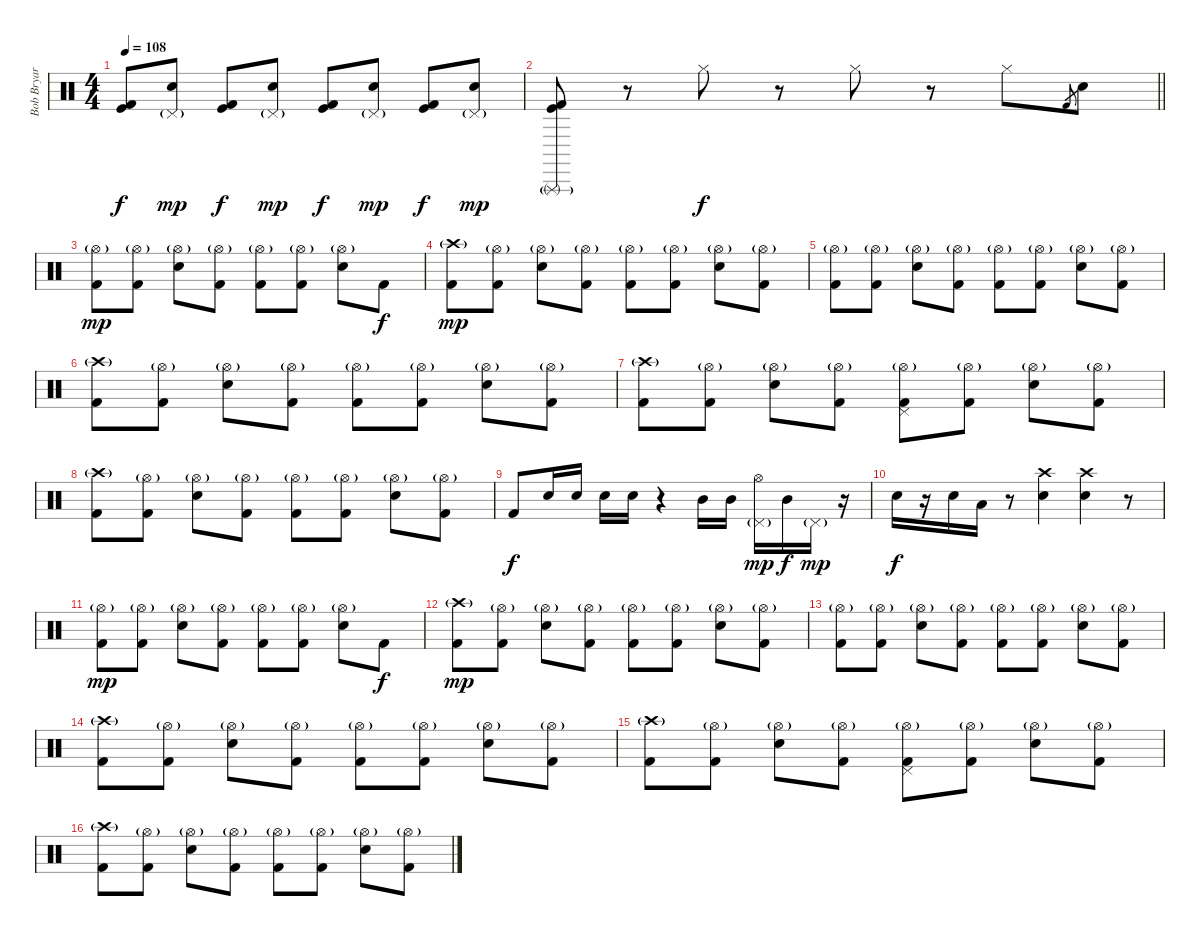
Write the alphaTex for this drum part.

\track ("Bob Bryar (Drums)" "Bob Bryar ") {instrument percussion}
\staff {score}
\articulation defaults
\ts (4 4)
\tempo 108
\clef neutral
\ks c
("Kick (hit)" "Kick (hit) 2").8{dy f volume 16 balance 8} ("Pedal Hi-Hat (hit)"{g} "Electric Snare (hit)").8{dy mp} ("Kick (hit)" "Kick (hit) 2").8{dy f} ("Pedal Hi-Hat (hit)"{g} "Electric Snare (hit)").8{dy mp} ("Kick (hit)" "Kick (hit) 2").8{dy f} ("Pedal Hi-Hat (hit)"{g} "Electric Snare (hit)").8{dy mp} ("Kick (hit)" "Kick (hit) 2").8{dy f} ("Pedal Hi-Hat (hit)"{g} "Electric Snare (hit)").8{dy mp} |
\barLineRight lightlight
("Triangle (rnute)"{g} "Kick (hit)" "Kick (hit) 2").8 r.8 "Hi-Hat (closed)".8{dy f} r.8 "Hi-Hat (closed)".8 r.8 "Hi-Hat (closed)".8 "Kick (hit) 2".8{gr} "Electric Snare (hit)".8 |
("Hi-Hat (open)"{g} "Kick (hit) 2").8{dy mp} ("Hi-Hat (open)"{g} "Kick (hit) 2").8 ("Hi-Hat (open)"{g} "Electric Snare (hit)").8 ("Hi-Hat (open)"{g} "Kick (hit) 2").8 ("Hi-Hat (open)"{g} "Kick (hit) 2").8 ("Hi-Hat (open)"{g} "Kick (hit) 2").8 ("Hi-Hat (open)"{g} "Electric Snare (hit)").8 "Kick (hit) 2".8{dy f} |
("Crash high (hit)"{g} "Kick (hit) 2").8{dy mp} ("Hi-Hat (open)"{g} "Kick (hit) 2").8 ("Hi-Hat (open)"{g} "Electric Snare (hit)").8 ("Hi-Hat (open)"{g} "Kick (hit) 2").8 ("Hi-Hat (open)"{g} "Kick (hit) 2").8 ("Hi-Hat (open)"{g} "Kick (hit) 2").8 ("Hi-Hat (open)"{g} "Electric Snare (hit)").8 ("Hi-Hat (open)"{g} "Kick (hit) 2").8 |
("Hi-Hat (open)"{g} "Kick (hit) 2").8 ("Hi-Hat (open)"{g} "Kick (hit) 2").8 ("Hi-Hat (open)"{g} "Electric Snare (hit)").8 ("Hi-Hat (open)"{g} "Kick (hit) 2").8 ("Hi-Hat (open)"{g} "Kick (hit) 2").8 ("Hi-Hat (open)"{g} "Kick (hit) 2").8 ("Hi-Hat (open)"{g} "Electric Snare (hit)").8 ("Hi-Hat (open)"{g} "Kick (hit) 2").8 |
("Crash high (hit)"{g} "Kick (hit) 2").8 ("Hi-Hat (open)"{g} "Kick (hit) 2").8 ("Hi-Hat (open)"{g} "Electric Snare (hit)").8 ("Hi-Hat (open)"{g} "Kick (hit) 2").8 ("Hi-Hat (open)"{g} "Kick (hit) 2").8 ("Hi-Hat (open)"{g} "Kick (hit) 2").8 ("Hi-Hat (open)"{g} "Electric Snare (hit)").8 ("Hi-Hat (open)"{g} "Kick (hit) 2").8 |
("Crash high (hit)"{g} "Kick (hit) 2").8 ("Hi-Hat (open)"{g} "Kick (hit) 2").8 ("Hi-Hat (open)"{g} "Electric Snare (hit)").8 ("Hi-Hat (open)"{g} "Kick (hit) 2").8 ("Hi-Hat (open)"{g} "Pedal Hi-Hat (hit)" "Kick (hit) 2").8 ("Hi-Hat (open)"{g} "Kick (hit) 2").8 ("Hi-Hat (open)"{g} "Electric Snare (hit)").8 ("Hi-Hat (open)"{g} "Kick (hit) 2").8 |
("Crash high (hit)"{g} "Kick (hit) 2").8 ("Hi-Hat (open)"{g} "Kick (hit) 2").8 ("Hi-Hat (open)"{g} "Electric Snare (hit)").8 ("Hi-Hat (open)"{g} "Kick (hit) 2").8 ("Hi-Hat (open)"{g} "Kick (hit) 2").8 ("Hi-Hat (open)"{g} "Kick (hit) 2").8 ("Hi-Hat (open)"{g} "Electric Snare (hit)").8 ("Hi-Hat (open)"{g} "Kick (hit) 2").8 |
"Kick (hit) 2".8{dy f} "Electric Snare (hit)".16 "Electric Snare (hit)".16 "Electric Snare (hit)".16 "Electric Snare (hit)".16 r.4 "Mid Tom (hit)".16 "Mid Tom (hit)".16 ("Pedal Hi-Hat (hit)"{g} "Hi-Hat (open)").16{dy mp} "Mid Tom (hit)".16{dy f} "Pedal Hi-Hat (hit)"{g}.16{dy mp} r.16 |
"Electric Snare (hit)".16{dy f} r.16 "Electric Snare (hit)".16 "Low Tom (hit)".16 r.8 ("Crash high (hit)" "Electric Snare (hit)").4 ("Crash high (hit)" "Electric Snare (hit)").4 r.8 |
("Hi-Hat (open)"{g} "Kick (hit) 2").8{dy mp} ("Hi-Hat (open)"{g} "Kick (hit) 2").8 ("Hi-Hat (open)"{g} "Electric Snare (hit)").8 ("Hi-Hat (open)"{g} "Kick (hit) 2").8 ("Hi-Hat (open)"{g} "Kick (hit) 2").8 ("Hi-Hat (open)"{g} "Kick (hit) 2").8 ("Hi-Hat (open)"{g} "Electric Snare (hit)").8 "Kick (hit) 2".8{dy f} |
("Crash high (hit)"{g} "Kick (hit) 2").8{dy mp} ("Hi-Hat (open)"{g} "Kick (hit) 2").8 ("Hi-Hat (open)"{g} "Electric Snare (hit)").8 ("Hi-Hat (open)"{g} "Kick (hit) 2").8 ("Hi-Hat (open)"{g} "Kick (hit) 2").8 ("Hi-Hat (open)"{g} "Kick (hit) 2").8 ("Hi-Hat (open)"{g} "Electric Snare (hit)").8 ("Hi-Hat (open)"{g} "Kick (hit) 2").8 |
("Hi-Hat (open)"{g} "Kick (hit) 2").8 ("Hi-Hat (open)"{g} "Kick (hit) 2").8 ("Hi-Hat (open)"{g} "Electric Snare (hit)").8 ("Hi-Hat (open)"{g} "Kick (hit) 2").8 ("Hi-Hat (open)"{g} "Kick (hit) 2").8 ("Hi-Hat (open)"{g} "Kick (hit) 2").8 ("Hi-Hat (open)"{g} "Electric Snare (hit)").8 ("Hi-Hat (open)"{g} "Kick (hit) 2").8 |
("Crash high (hit)"{g} "Kick (hit) 2").8 ("Hi-Hat (open)"{g} "Kick (hit) 2").8 ("Hi-Hat (open)"{g} "Electric Snare (hit)").8 ("Hi-Hat (open)"{g} "Kick (hit) 2").8 ("Hi-Hat (open)"{g} "Kick (hit) 2").8 ("Hi-Hat (open)"{g} "Kick (hit) 2").8 ("Hi-Hat (open)"{g} "Electric Snare (hit)").8 ("Hi-Hat (open)"{g} "Kick (hit) 2").8 |
("Crash high (hit)"{g} "Kick (hit) 2").8 ("Hi-Hat (open)"{g} "Kick (hit) 2").8 ("Hi-Hat (open)"{g} "Electric Snare (hit)").8 ("Hi-Hat (open)"{g} "Kick (hit) 2").8 ("Hi-Hat (open)"{g} "Pedal Hi-Hat (hit)" "Kick (hit) 2").8 ("Hi-Hat (open)"{g} "Kick (hit) 2").8 ("Hi-Hat (open)"{g} "Electric Snare (hit)").8 ("Hi-Hat (open)"{g} "Kick (hit) 2").8 |
("Crash high (hit)"{g} "Kick (hit) 2").8 ("Hi-Hat (open)"{g} "Kick (hit) 2").8 ("Hi-Hat (open)"{g} "Electric Snare (hit)").8 ("Hi-Hat (open)"{g} "Kick (hit) 2").8 ("Hi-Hat (open)"{g} "Kick (hit) 2").8 ("Hi-Hat (open)"{g} "Kick (hit) 2").8 ("Hi-Hat (open)"{g} "Electric Snare (hit)").8 ("Hi-Hat (open)"{g} "Kick (hit) 2").8
